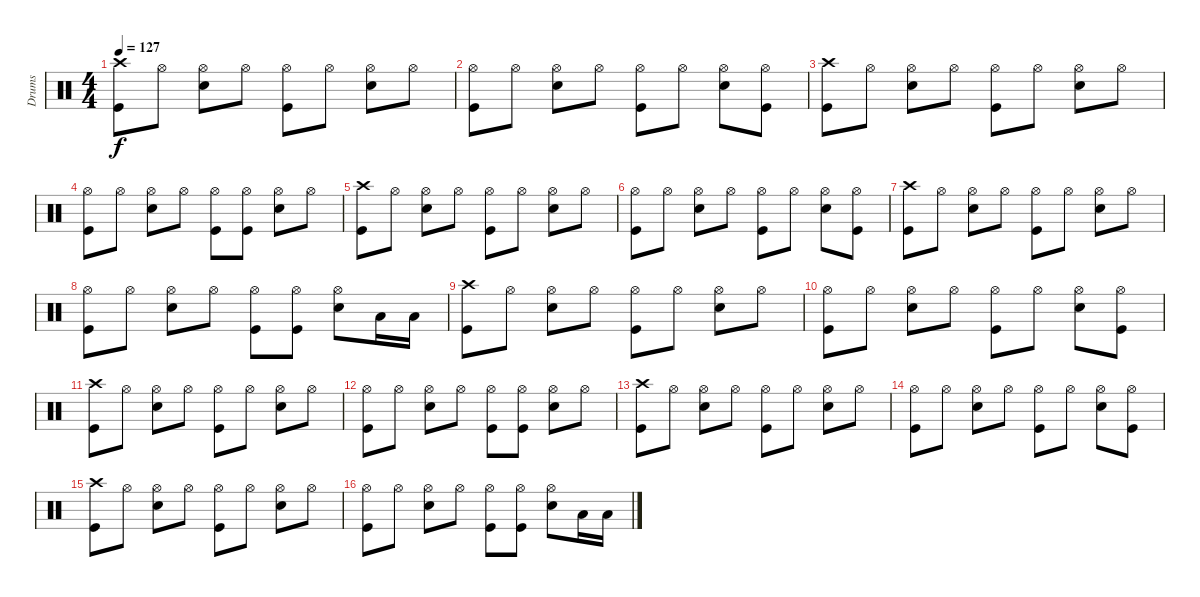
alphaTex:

\track ("Drums" "Drums") {instrument percussion}
\staff {score}
\articulation defaults
\ts (4 4)
\tempo 127
\clef neutral
\ks c
("Crash high (hit)" "Kick (hit)").8{dy f} "Hi-Hat (open)".8 ("Hi-Hat (open)" "Snare (hit) 2").8 "Hi-Hat (open)".8 ("Hi-Hat (open)" "Kick (hit)").8 "Hi-Hat (open)".8 ("Hi-Hat (open)" "Snare (hit) 2").8 "Hi-Hat (open)".8 |
("Hi-Hat (open)" "Kick (hit)").8 "Hi-Hat (open)".8 ("Hi-Hat (open)" "Snare (hit) 2").8 "Hi-Hat (open)".8 ("Hi-Hat (open)" "Kick (hit)").8 "Hi-Hat (open)".8 ("Hi-Hat (open)" "Snare (hit) 2").8 ("Hi-Hat (open)" "Kick (hit)").8 |
("Crash high (hit)" "Kick (hit)").8 "Hi-Hat (open)".8 ("Hi-Hat (open)" "Snare (hit) 2").8 "Hi-Hat (open)".8 ("Hi-Hat (open)" "Kick (hit)").8 "Hi-Hat (open)".8 ("Hi-Hat (open)" "Snare (hit) 2").8 "Hi-Hat (open)".8 |
("Hi-Hat (open)" "Kick (hit)").8 "Hi-Hat (open)".8 ("Hi-Hat (open)" "Snare (hit) 2").8 "Hi-Hat (open)".8 ("Hi-Hat (open)" "Kick (hit)").8 ("Hi-Hat (open)" "Kick (hit)").8 ("Hi-Hat (open)" "Snare (hit) 2").8 "Hi-Hat (open)".8 |
("Crash high (hit)" "Kick (hit)").8 "Hi-Hat (open)".8 ("Hi-Hat (open)" "Snare (hit) 2").8 "Hi-Hat (open)".8 ("Hi-Hat (open)" "Kick (hit)").8 "Hi-Hat (open)".8 ("Hi-Hat (open)" "Snare (hit) 2").8 "Hi-Hat (open)".8 |
("Hi-Hat (open)" "Kick (hit)").8 "Hi-Hat (open)".8 ("Hi-Hat (open)" "Snare (hit) 2").8 "Hi-Hat (open)".8 ("Hi-Hat (open)" "Kick (hit)").8 "Hi-Hat (open)".8 ("Hi-Hat (open)" "Snare (hit) 2").8 ("Hi-Hat (open)" "Kick (hit)").8 |
("Crash high (hit)" "Kick (hit)").8 "Hi-Hat (open)".8 ("Hi-Hat (open)" "Snare (hit) 2").8 "Hi-Hat (open)".8 ("Hi-Hat (open)" "Kick (hit)").8 "Hi-Hat (open)".8 ("Hi-Hat (open)" "Snare (hit) 2").8 "Hi-Hat (open)".8 |
("Hi-Hat (open)" "Kick (hit)").8 "Hi-Hat (open)".8 ("Hi-Hat (open)" "Snare (hit) 2").8 "Hi-Hat (open)".8 ("Hi-Hat (open)" "Kick (hit)").8 ("Hi-Hat (open)" "Kick (hit)").8 ("Hi-Hat (open)" "Snare (hit) 2").8 "Low Floor Tom (hit)".16 "Low Floor Tom (hit)".16 |
("Crash high (hit)" "Kick (hit)").8 "Hi-Hat (open)".8 ("Hi-Hat (open)" "Snare (hit) 2").8 "Hi-Hat (open)".8 ("Hi-Hat (open)" "Kick (hit)").8 "Hi-Hat (open)".8 ("Hi-Hat (open)" "Snare (hit) 2").8 "Hi-Hat (open)".8 |
("Hi-Hat (open)" "Kick (hit)").8 "Hi-Hat (open)".8 ("Hi-Hat (open)" "Snare (hit) 2").8 "Hi-Hat (open)".8 ("Hi-Hat (open)" "Kick (hit)").8 "Hi-Hat (open)".8 ("Hi-Hat (open)" "Snare (hit) 2").8 ("Hi-Hat (open)" "Kick (hit)").8 |
("Crash high (hit)" "Kick (hit)").8 "Hi-Hat (open)".8 ("Hi-Hat (open)" "Snare (hit) 2").8 "Hi-Hat (open)".8 ("Hi-Hat (open)" "Kick (hit)").8 "Hi-Hat (open)".8 ("Hi-Hat (open)" "Snare (hit) 2").8 "Hi-Hat (open)".8 |
("Hi-Hat (open)" "Kick (hit)").8 "Hi-Hat (open)".8 ("Hi-Hat (open)" "Snare (hit) 2").8 "Hi-Hat (open)".8 ("Hi-Hat (open)" "Kick (hit)").8 ("Hi-Hat (open)" "Kick (hit)").8 ("Hi-Hat (open)" "Snare (hit) 2").8 "Hi-Hat (open)".8 |
("Crash high (hit)" "Kick (hit)").8 "Hi-Hat (open)".8 ("Hi-Hat (open)" "Snare (hit) 2").8 "Hi-Hat (open)".8 ("Hi-Hat (open)" "Kick (hit)").8 "Hi-Hat (open)".8 ("Hi-Hat (open)" "Snare (hit) 2").8 "Hi-Hat (open)".8 |
("Hi-Hat (open)" "Kick (hit)").8 "Hi-Hat (open)".8 ("Hi-Hat (open)" "Snare (hit) 2").8 "Hi-Hat (open)".8 ("Hi-Hat (open)" "Kick (hit)").8 "Hi-Hat (open)".8 ("Hi-Hat (open)" "Snare (hit) 2").8 ("Hi-Hat (open)" "Kick (hit)").8 |
("Crash high (hit)" "Kick (hit)").8 "Hi-Hat (open)".8 ("Hi-Hat (open)" "Snare (hit) 2").8 "Hi-Hat (open)".8 ("Hi-Hat (open)" "Kick (hit)").8 "Hi-Hat (open)".8 ("Hi-Hat (open)" "Snare (hit) 2").8 "Hi-Hat (open)".8 |
("Hi-Hat (open)" "Kick (hit)").8 "Hi-Hat (open)".8 ("Hi-Hat (open)" "Snare (hit) 2").8 "Hi-Hat (open)".8 ("Hi-Hat (open)" "Kick (hit)").8 ("Hi-Hat (open)" "Kick (hit)").8 ("Hi-Hat (open)" "Snare (hit) 2").8 "Low Floor Tom (hit)".16 "Low Floor Tom (hit)".16
